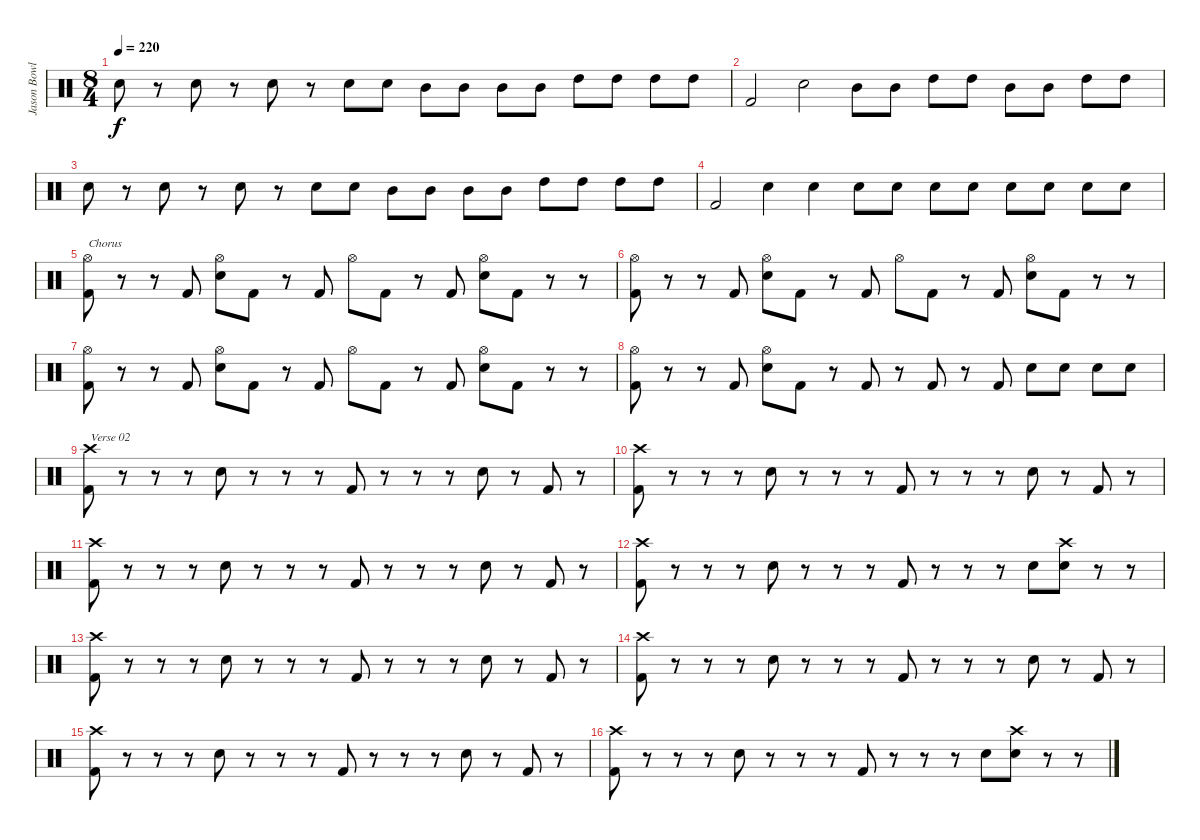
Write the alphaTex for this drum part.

\track ("Jason Bowld" "Jason Bowl") {instrument percussion}
\staff {score}
\articulation defaults
\ts (8 4)
\tempo 220
\clef neutral
\ks c "Snare (hit) 2".8{dy f}
r.8 "Snare (hit) 2".8 r.8 "Snare (hit) 2".8 r.8 "Snare (hit) 2".8 "Snare (hit) 2".8 "Mid Tom (hit)".8 "Mid Tom (hit)".8 "Mid Tom (hit)".8 "Mid Tom (hit)".8 "High Tom (hit)".8 "High Tom (hit)".8 "High Tom (hit)".8 "High Tom (hit)".8 |
"Kick (hit) 2".2 "Snare (hit) 2".2 "Mid Tom (hit)".8 "Mid Tom (hit)".8 "High Tom (hit)".8 "High Tom (hit)".8 "Mid Tom (hit)".8 "Mid Tom (hit)".8 "High Tom (hit)".8 "High Tom (hit)".8 |
"Snare (hit) 2".8 r.8 "Snare (hit) 2".8 r.8 "Snare (hit) 2".8 r.8 "Snare (hit) 2".8 "Snare (hit) 2".8 "Mid Tom (hit)".8 "Mid Tom (hit)".8 "Mid Tom (hit)".8 "Mid Tom (hit)".8 "High Tom (hit)".8 "High Tom (hit)".8 "High Tom (hit)".8 "High Tom (hit)".8 |
"Kick (hit) 2".2 "Snare (hit) 2".4 "Snare (hit) 2".4 "Snare (hit) 2".8 "Snare (hit) 2".8 "Snare (hit) 2".8 "Snare (hit) 2".8 "Snare (hit) 2".8 "Snare (hit) 2".8 "Snare (hit) 2".8 "Snare (hit) 2".8 |
("Hi-Hat (open)" "Kick (hit) 2").8{txt "Chorus"} r.8 r.8 "Kick (hit) 2".8 ("Hi-Hat (open)" "Snare (hit) 2").8 "Kick (hit) 2".8 r.8 "Kick (hit) 2".8 "Hi-Hat (open)".8 "Kick (hit) 2".8 r.8 "Kick (hit) 2".8 ("Hi-Hat (open)" "Snare (hit) 2").8 "Kick (hit) 2".8 r.8 r.8 |
("Hi-Hat (open)" "Kick (hit) 2").8 r.8 r.8 "Kick (hit) 2".8 ("Hi-Hat (open)" "Snare (hit) 2").8 "Kick (hit) 2".8 r.8 "Kick (hit) 2".8 "Hi-Hat (open)".8 "Kick (hit) 2".8 r.8 "Kick (hit) 2".8 ("Hi-Hat (open)" "Snare (hit) 2").8 "Kick (hit) 2".8 r.8 r.8 |
("Hi-Hat (open)" "Kick (hit) 2").8 r.8 r.8 "Kick (hit) 2".8 ("Hi-Hat (open)" "Snare (hit) 2").8 "Kick (hit) 2".8 r.8 "Kick (hit) 2".8 "Hi-Hat (open)".8 "Kick (hit) 2".8 r.8 "Kick (hit) 2".8 ("Hi-Hat (open)" "Snare (hit) 2").8 "Kick (hit) 2".8 r.8 r.8 |
("Hi-Hat (open)" "Kick (hit) 2").8 r.8 r.8 "Kick (hit) 2".8 ("Hi-Hat (open)" "Snare (hit) 2").8 "Kick (hit) 2".8 r.8 "Kick (hit) 2".8 r.8 "Kick (hit) 2".8 r.8 "Kick (hit) 2".8 "Snare (hit) 2".8 "Snare (hit) 2".8 "Snare (hit) 2".8 "Snare (hit) 2".8 |
("Kick (hit) 2" "Crash high (hit)").8{txt "Verse 02"} r.8 r.8 r.8 "Snare (hit) 2".8 r.8 r.8 r.8 "Kick (hit) 2".8 r.8 r.8 r.8 "Snare (hit) 2".8 r.8 "Kick (hit) 2".8 r.8 |
("Kick (hit) 2" "Crash high (hit)").8 r.8 r.8 r.8 "Snare (hit) 2".8 r.8 r.8 r.8 "Kick (hit) 2".8 r.8 r.8 r.8 "Snare (hit) 2".8 r.8 "Kick (hit) 2".8 r.8 |
("Kick (hit) 2" "Crash high (hit)").8 r.8 r.8 r.8 "Snare (hit) 2".8 r.8 r.8 r.8 "Kick (hit) 2".8 r.8 r.8 r.8 "Snare (hit) 2".8 r.8 "Kick (hit) 2".8 r.8 |
("Kick (hit) 2" "Crash high (hit)").8 r.8 r.8 r.8 "Snare (hit) 2".8 r.8 r.8 r.8 "Kick (hit) 2".8 r.8 r.8 r.8 "Snare (hit) 2".8 ("Snare (hit) 2" "Crash high (hit)").8 r.8 r.8 |
("Kick (hit) 2" "Crash high (hit)").8 r.8 r.8 r.8 "Snare (hit) 2".8 r.8 r.8 r.8 "Kick (hit) 2".8 r.8 r.8 r.8 "Snare (hit) 2".8 r.8 "Kick (hit) 2".8 r.8 |
("Kick (hit) 2" "Crash high (hit)").8 r.8 r.8 r.8 "Snare (hit) 2".8 r.8 r.8 r.8 "Kick (hit) 2".8 r.8 r.8 r.8 "Snare (hit) 2".8 r.8 "Kick (hit) 2".8 r.8 |
("Kick (hit) 2" "Crash high (hit)").8 r.8 r.8 r.8 "Snare (hit) 2".8 r.8 r.8 r.8 "Kick (hit) 2".8 r.8 r.8 r.8 "Snare (hit) 2".8 r.8 "Kick (hit) 2".8 r.8 |
("Kick (hit) 2" "Crash high (hit)").8 r.8 r.8 r.8 "Snare (hit) 2".8 r.8 r.8 r.8 "Kick (hit) 2".8 r.8 r.8 r.8 "Snare (hit) 2".8 ("Snare (hit) 2" "Crash high (hit)").8 r.8 r.8
